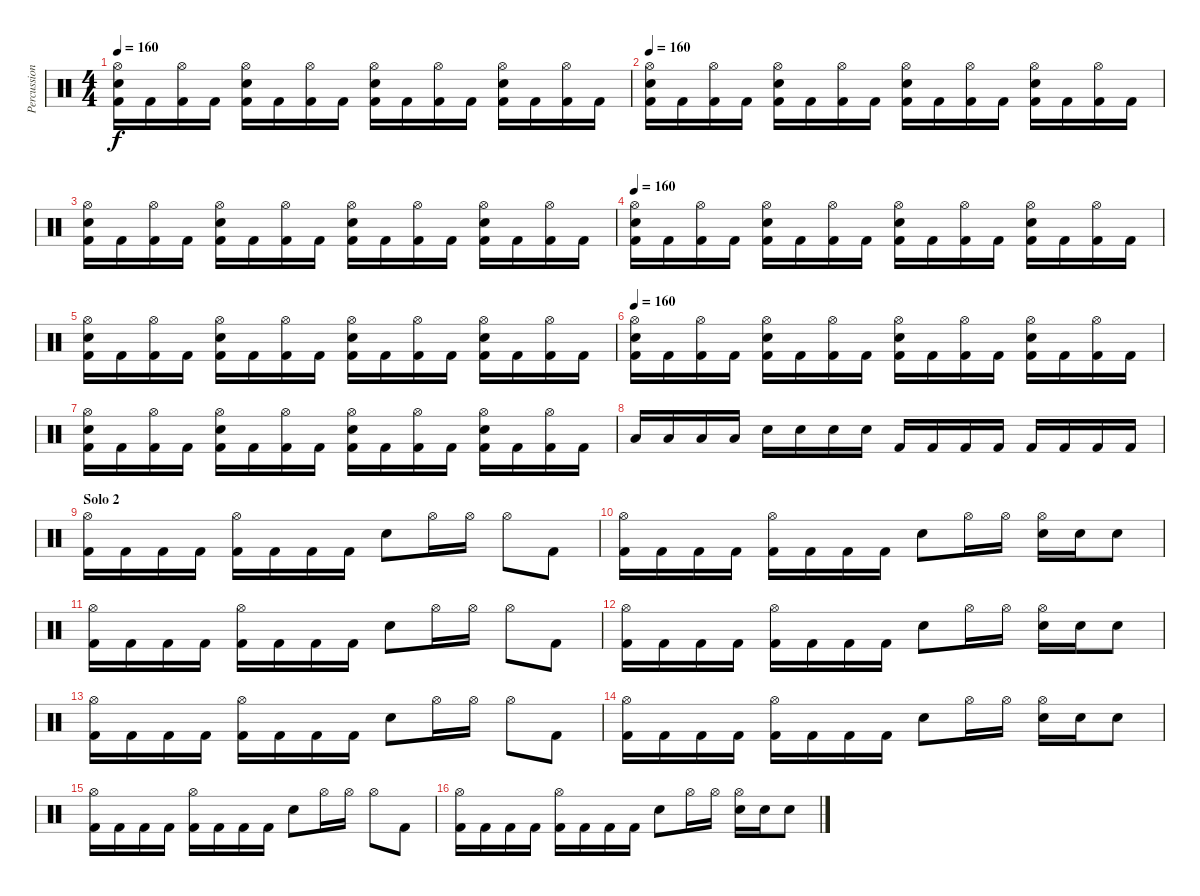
\track ("Percussions" "Percussion") {instrument percussion}
\staff {score}
\articulation defaults
\ts (4 4)
\tempo 160
\clef neutral
\ks c
("Hi-Hat (open)" "Electric Snare (hit)" "Kick (hit) 2").16{dy f} "Kick (hit) 2".16 ("Hi-Hat (open)" "Kick (hit) 2").16 "Kick (hit) 2".16 ("Hi-Hat (open)" "Electric Snare (hit)" "Kick (hit) 2").16 "Kick (hit) 2".16 ("Hi-Hat (open)" "Kick (hit) 2").16 "Kick (hit) 2".16 ("Hi-Hat (open)" "Electric Snare (hit)" "Kick (hit) 2").16 "Kick (hit) 2".16 ("Hi-Hat (open)" "Kick (hit) 2").16 "Kick (hit) 2".16 ("Hi-Hat (open)" "Electric Snare (hit)" "Kick (hit) 2").16 "Kick (hit) 2".16 ("Hi-Hat (open)" "Kick (hit) 2").16 "Kick (hit) 2".16 |
\tempo 160
("Hi-Hat (open)" "Electric Snare (hit)" "Kick (hit) 2").16 "Kick (hit) 2".16 ("Hi-Hat (open)" "Kick (hit) 2").16 "Kick (hit) 2".16 ("Hi-Hat (open)" "Electric Snare (hit)" "Kick (hit) 2").16 "Kick (hit) 2".16 ("Hi-Hat (open)" "Kick (hit) 2").16 "Kick (hit) 2".16 ("Hi-Hat (open)" "Electric Snare (hit)" "Kick (hit) 2").16 "Kick (hit) 2".16 ("Hi-Hat (open)" "Kick (hit) 2").16 "Kick (hit) 2".16 ("Hi-Hat (open)" "Electric Snare (hit)" "Kick (hit) 2").16 "Kick (hit) 2".16 ("Hi-Hat (open)" "Kick (hit) 2").16 "Kick (hit) 2".16 |
("Hi-Hat (open)" "Electric Snare (hit)" "Kick (hit) 2").16 "Kick (hit) 2".16 ("Hi-Hat (open)" "Kick (hit) 2").16 "Kick (hit) 2".16 ("Hi-Hat (open)" "Electric Snare (hit)" "Kick (hit) 2").16 "Kick (hit) 2".16 ("Hi-Hat (open)" "Kick (hit) 2").16 "Kick (hit) 2".16 ("Hi-Hat (open)" "Electric Snare (hit)" "Kick (hit) 2").16 "Kick (hit) 2".16 ("Hi-Hat (open)" "Kick (hit) 2").16 "Kick (hit) 2".16 ("Hi-Hat (open)" "Electric Snare (hit)" "Kick (hit) 2").16 "Kick (hit) 2".16 ("Hi-Hat (open)" "Kick (hit) 2").16 "Kick (hit) 2".16 |
\tempo 160
("Hi-Hat (open)" "Electric Snare (hit)" "Kick (hit) 2").16 "Kick (hit) 2".16 ("Hi-Hat (open)" "Kick (hit) 2").16 "Kick (hit) 2".16 ("Hi-Hat (open)" "Electric Snare (hit)" "Kick (hit) 2").16 "Kick (hit) 2".16 ("Hi-Hat (open)" "Kick (hit) 2").16 "Kick (hit) 2".16 ("Hi-Hat (open)" "Electric Snare (hit)" "Kick (hit) 2").16 "Kick (hit) 2".16 ("Hi-Hat (open)" "Kick (hit) 2").16 "Kick (hit) 2".16 ("Hi-Hat (open)" "Electric Snare (hit)" "Kick (hit) 2").16 "Kick (hit) 2".16 ("Hi-Hat (open)" "Kick (hit) 2").16 "Kick (hit) 2".16 |
("Hi-Hat (open)" "Electric Snare (hit)" "Kick (hit) 2").16 "Kick (hit) 2".16 ("Hi-Hat (open)" "Kick (hit) 2").16 "Kick (hit) 2".16 ("Hi-Hat (open)" "Electric Snare (hit)" "Kick (hit) 2").16 "Kick (hit) 2".16 ("Hi-Hat (open)" "Kick (hit) 2").16 "Kick (hit) 2".16 ("Hi-Hat (open)" "Electric Snare (hit)" "Kick (hit) 2").16 "Kick (hit) 2".16 ("Hi-Hat (open)" "Kick (hit) 2").16 "Kick (hit) 2".16 ("Hi-Hat (open)" "Electric Snare (hit)" "Kick (hit) 2").16 "Kick (hit) 2".16 ("Hi-Hat (open)" "Kick (hit) 2").16 "Kick (hit) 2".16 |
\tempo 160
("Hi-Hat (open)" "Electric Snare (hit)" "Kick (hit) 2").16 "Kick (hit) 2".16 ("Hi-Hat (open)" "Kick (hit) 2").16 "Kick (hit) 2".16 ("Hi-Hat (open)" "Electric Snare (hit)" "Kick (hit) 2").16 "Kick (hit) 2".16 ("Hi-Hat (open)" "Kick (hit) 2").16 "Kick (hit) 2".16 ("Hi-Hat (open)" "Electric Snare (hit)" "Kick (hit) 2").16 "Kick (hit) 2".16 ("Hi-Hat (open)" "Kick (hit) 2").16 "Kick (hit) 2".16 ("Hi-Hat (open)" "Electric Snare (hit)" "Kick (hit) 2").16 "Kick (hit) 2".16 ("Hi-Hat (open)" "Kick (hit) 2").16 "Kick (hit) 2".16 |
("Hi-Hat (open)" "Electric Snare (hit)" "Kick (hit) 2").16 "Kick (hit) 2".16 ("Hi-Hat (open)" "Kick (hit) 2").16 "Kick (hit) 2".16 ("Hi-Hat (open)" "Electric Snare (hit)" "Kick (hit) 2").16 "Kick (hit) 2".16 ("Hi-Hat (open)" "Kick (hit) 2").16 "Kick (hit) 2".16 ("Hi-Hat (open)" "Electric Snare (hit)" "Kick (hit) 2").16 "Kick (hit) 2".16 ("Hi-Hat (open)" "Kick (hit) 2").16 "Kick (hit) 2".16 ("Hi-Hat (open)" "Electric Snare (hit)" "Kick (hit) 2").16 "Kick (hit) 2".16 ("Hi-Hat (open)" "Kick (hit) 2").16 "Kick (hit) 2".16 |
"Low Floor Tom (hit)".16 "Low Floor Tom (hit)".16 "Low Floor Tom (hit)".16 "Low Floor Tom (hit)".16 "Electric Snare (hit)".16 "Electric Snare (hit)".16 "Electric Snare (hit)".16 "Electric Snare (hit)".16 "Kick (hit) 2".16 "Kick (hit) 2".16 "Kick (hit) 2".16 "Kick (hit) 2".16 "Kick (hit) 2".16 "Kick (hit) 2".16 "Kick (hit) 2".16 "Kick (hit) 2".16 |
\section ("" "Solo 2")
("Hi-Hat (open)" "Kick (hit) 2").16 "Kick (hit) 2".16 "Kick (hit) 2".16 "Kick (hit) 2".16 ("Hi-Hat (open)" "Kick (hit) 2").16 "Kick (hit) 2".16 "Kick (hit) 2".16 "Kick (hit) 2".16 "Electric Snare (hit)".8 "Hi-Hat (open)".16 "Hi-Hat (open)".16 "Hi-Hat (open)".8 "Kick (hit) 2".8 |
("Hi-Hat (open)" "Kick (hit) 2").16 "Kick (hit) 2".16 "Kick (hit) 2".16 "Kick (hit) 2".16 ("Hi-Hat (open)" "Kick (hit) 2").16 "Kick (hit) 2".16 "Kick (hit) 2".16 "Kick (hit) 2".16 "Electric Snare (hit)".8 "Hi-Hat (open)".16 "Hi-Hat (open)".16 ("Hi-Hat (open)" "Electric Snare (hit)").16 "Electric Snare (hit)".16 "Electric Snare (hit)".8 |
("Hi-Hat (open)" "Kick (hit) 2").16 "Kick (hit) 2".16 "Kick (hit) 2".16 "Kick (hit) 2".16 ("Hi-Hat (open)" "Kick (hit) 2").16 "Kick (hit) 2".16 "Kick (hit) 2".16 "Kick (hit) 2".16 "Electric Snare (hit)".8 "Hi-Hat (open)".16 "Hi-Hat (open)".16 "Hi-Hat (open)".8 "Kick (hit) 2".8 |
("Hi-Hat (open)" "Kick (hit) 2").16 "Kick (hit) 2".16 "Kick (hit) 2".16 "Kick (hit) 2".16 ("Hi-Hat (open)" "Kick (hit) 2").16 "Kick (hit) 2".16 "Kick (hit) 2".16 "Kick (hit) 2".16 "Electric Snare (hit)".8 "Hi-Hat (open)".16 "Hi-Hat (open)".16 ("Hi-Hat (open)" "Electric Snare (hit)").16 "Electric Snare (hit)".16 "Electric Snare (hit)".8 |
("Hi-Hat (open)" "Kick (hit) 2").16 "Kick (hit) 2".16 "Kick (hit) 2".16 "Kick (hit) 2".16 ("Hi-Hat (open)" "Kick (hit) 2").16 "Kick (hit) 2".16 "Kick (hit) 2".16 "Kick (hit) 2".16 "Electric Snare (hit)".8 "Hi-Hat (open)".16 "Hi-Hat (open)".16 "Hi-Hat (open)".8 "Kick (hit) 2".8 |
("Hi-Hat (open)" "Kick (hit) 2").16 "Kick (hit) 2".16 "Kick (hit) 2".16 "Kick (hit) 2".16 ("Hi-Hat (open)" "Kick (hit) 2").16 "Kick (hit) 2".16 "Kick (hit) 2".16 "Kick (hit) 2".16 "Electric Snare (hit)".8 "Hi-Hat (open)".16 "Hi-Hat (open)".16 ("Hi-Hat (open)" "Electric Snare (hit)").16 "Electric Snare (hit)".16 "Electric Snare (hit)".8 |
("Hi-Hat (open)" "Kick (hit) 2").16 "Kick (hit) 2".16 "Kick (hit) 2".16 "Kick (hit) 2".16 ("Hi-Hat (open)" "Kick (hit) 2").16 "Kick (hit) 2".16 "Kick (hit) 2".16 "Kick (hit) 2".16 "Electric Snare (hit)".8 "Hi-Hat (open)".16 "Hi-Hat (open)".16 "Hi-Hat (open)".8 "Kick (hit) 2".8 |
("Hi-Hat (open)" "Kick (hit) 2").16 "Kick (hit) 2".16 "Kick (hit) 2".16 "Kick (hit) 2".16 ("Hi-Hat (open)" "Kick (hit) 2").16 "Kick (hit) 2".16 "Kick (hit) 2".16 "Kick (hit) 2".16 "Electric Snare (hit)".8 "Hi-Hat (open)".16 "Hi-Hat (open)".16 ("Hi-Hat (open)" "Electric Snare (hit)").16 "Electric Snare (hit)".16 "Electric Snare (hit)".8
